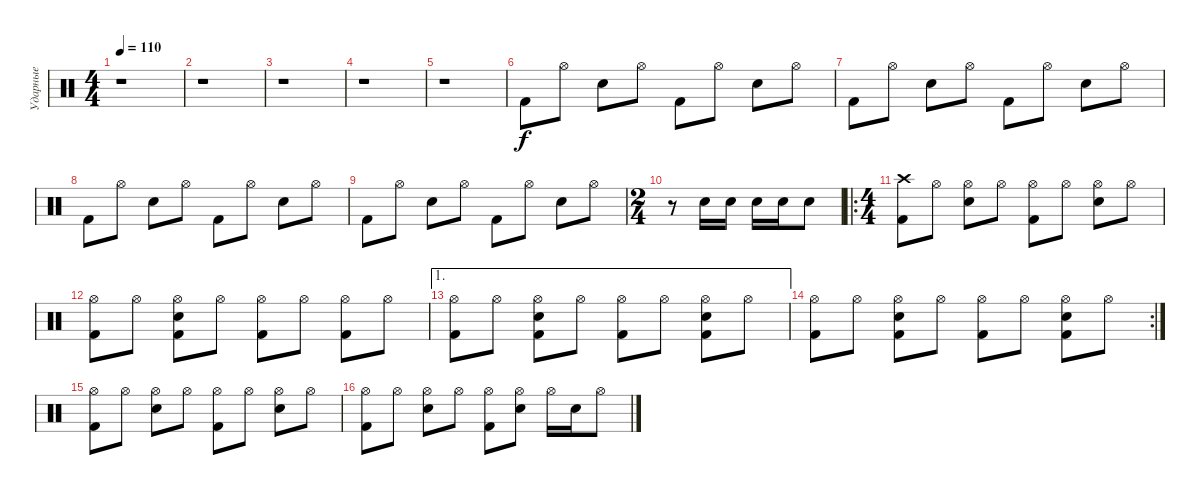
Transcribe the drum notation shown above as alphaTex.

\track ("Ударные" "Ударные") {instrument percussion}
\staff
\articulation defaults
\ts (4 4)
\tempo 110
\clef neutral
\ks c
r.1{dy f} |
r.1 |
r.1 |
r.1 |
r.1 |
"Kick (hit) 2".8 "Hi-Hat (open)".8 "Snare (hit) 2".8 "Hi-Hat (open)".8 "Kick (hit) 2".8 "Hi-Hat (open)".8 "Snare (hit) 2".8 "Hi-Hat (open)".8 |
"Kick (hit) 2".8 "Hi-Hat (open)".8 "Snare (hit) 2".8 "Hi-Hat (open)".8 "Kick (hit) 2".8 "Hi-Hat (open)".8 "Snare (hit) 2".8 "Hi-Hat (open)".8 |
"Kick (hit) 2".8 "Hi-Hat (open)".8 "Snare (hit) 2".8 "Hi-Hat (open)".8 "Kick (hit) 2".8 "Hi-Hat (open)".8 "Snare (hit) 2".8 "Hi-Hat (open)".8 |
"Kick (hit) 2".8 "Hi-Hat (open)".8 "Snare (hit) 2".8 "Hi-Hat (open)".8 "Kick (hit) 2".8 "Hi-Hat (open)".8 "Snare (hit) 2".8 "Hi-Hat (open)".8 |
\ts (2 4)
r.8 "Snare (hit) 2".16 "Snare (hit) 2".16 "Snare (hit) 2".16 "Snare (hit) 2".16 "Snare (hit) 2".8 |
\ro
\ts (4 4)
("Kick (hit) 2" "Crash high (hit)").8 "Hi-Hat (open)".8 ("Snare (hit) 2" "Hi-Hat (open)").8 "Hi-Hat (open)".8 ("Kick (hit) 2" "Hi-Hat (open)").8 "Hi-Hat (open)".8 ("Snare (hit) 2" "Hi-Hat (open)").8 "Hi-Hat (open)".8 |
("Kick (hit) 2" "Hi-Hat (open)").8 "Hi-Hat (open)".8 ("Kick (hit) 2" "Snare (hit) 2" "Hi-Hat (open)").8 "Hi-Hat (open)".8 ("Kick (hit) 2" "Hi-Hat (open)").8 "Hi-Hat (open)".8 ("Kick (hit) 2" "Hi-Hat (open)").8 "Hi-Hat (open)".8 |
\ae 1
("Kick (hit) 2" "Hi-Hat (open)").8 "Hi-Hat (open)".8 ("Kick (hit) 2" "Snare (hit) 2" "Hi-Hat (open)").8 "Hi-Hat (open)".8 ("Kick (hit) 2" "Hi-Hat (open)").8 "Hi-Hat (open)".8 ("Kick (hit) 2" "Snare (hit) 2" "Hi-Hat (open)").8 "Hi-Hat (open)".8 |
\rc 2
("Kick (hit) 2" "Hi-Hat (open)").8 "Hi-Hat (open)".8 ("Kick (hit) 2" "Snare (hit) 2" "Hi-Hat (open)").8 "Hi-Hat (open)".8 ("Kick (hit) 2" "Hi-Hat (open)").8 "Hi-Hat (open)".8 ("Kick (hit) 2" "Snare (hit) 2" "Hi-Hat (open)").8 "Hi-Hat (open)".8 |
("Kick (hit) 2" "Hi-Hat (open)").8 "Hi-Hat (open)".8 ("Snare (hit) 2" "Hi-Hat (open)").8 "Hi-Hat (open)".8 ("Kick (hit) 2" "Hi-Hat (open)").8 "Hi-Hat (open)".8 ("Snare (hit) 2" "Hi-Hat (open)").8 "Hi-Hat (open)".8 |
("Kick (hit) 2" "Hi-Hat (open)").8 "Hi-Hat (open)".8 ("Snare (hit) 2" "Hi-Hat (open)").8 "Hi-Hat (open)".8 ("Kick (hit) 2" "Hi-Hat (open)").8 ("Snare (hit) 2" "Hi-Hat (open)").8 "Hi-Hat (open)".16 "Snare (hit) 2".16 "Hi-Hat (open)".8
